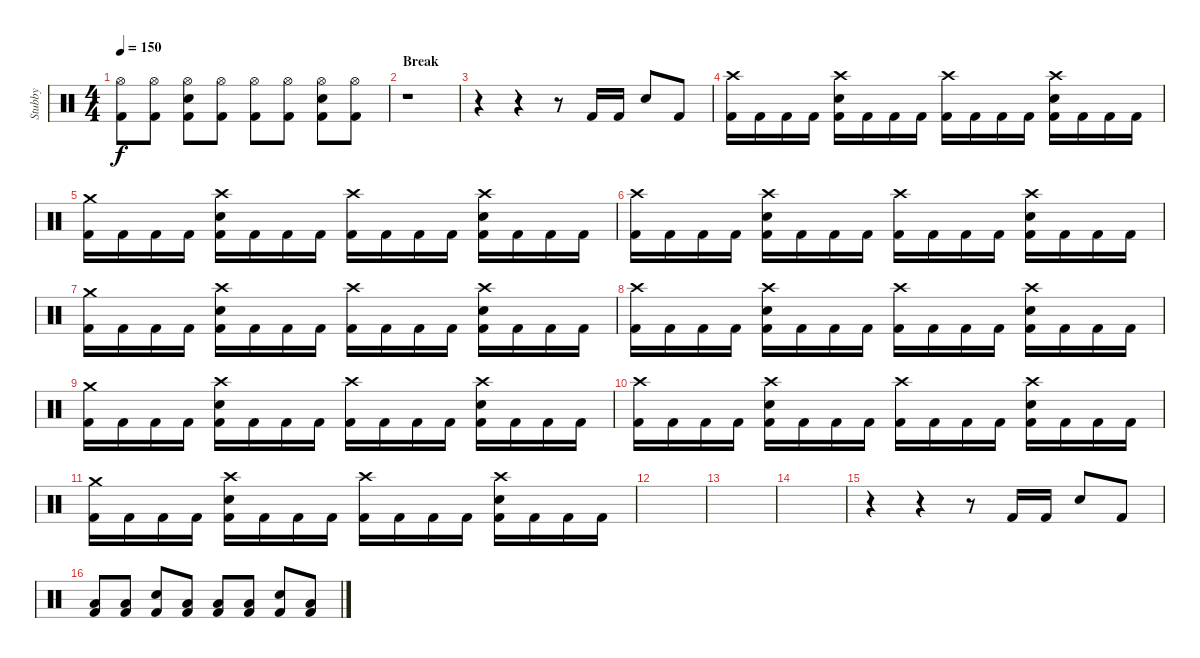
\track ("Stubby" "Stubby") {instrument percussion}
\staff {score}
\articulation defaults
\ts (4 4)
\tempo 150
\clef neutral
\ks c
("Hi-Hat (open)" "Kick (hit) 2").8{dy f} ("Hi-Hat (open)" "Kick (hit) 2").8 ("Hi-Hat (open)" "Snare (hit) 2" "Kick (hit) 2").8 ("Hi-Hat (open)" "Kick (hit) 2").8 ("Hi-Hat (open)" "Kick (hit) 2").8 ("Hi-Hat (open)" "Kick (hit) 2").8 ("Hi-Hat (open)" "Snare (hit) 2" "Kick (hit) 2").8 ("Hi-Hat (open)" "Kick (hit) 2").8 |
\section ("" "Break")
r.1 |
r.4 r.4 r.8 "Kick (hit) 2".16 "Kick (hit) 2".16 "Snare (hit) 2".8 "Kick (hit) 2".8 |
("Crash high (hit)" "Kick (hit) 2").16 "Kick (hit) 2".16 "Kick (hit) 2".16 "Kick (hit) 2".16 ("Crash high (hit)" "Snare (hit) 2" "Kick (hit) 2").16 "Kick (hit) 2".16 "Kick (hit) 2".16 "Kick (hit) 2".16 ("Crash high (hit)" "Kick (hit) 2").16 "Kick (hit) 2".16 "Kick (hit) 2".16 "Kick (hit) 2".16 ("Crash high (hit)" "Snare (hit) 2" "Kick (hit) 2").16 "Kick (hit) 2".16 "Kick (hit) 2".16 "Kick (hit) 2".16 |
("Crash medium (hit)" "Kick (hit) 2").16 "Kick (hit) 2".16 "Kick (hit) 2".16 "Kick (hit) 2".16 ("Crash high (hit)" "Snare (hit) 2" "Kick (hit) 2").16 "Kick (hit) 2".16 "Kick (hit) 2".16 "Kick (hit) 2".16 ("Crash high (hit)" "Kick (hit) 2").16 "Kick (hit) 2".16 "Kick (hit) 2".16 "Kick (hit) 2".16 ("Crash high (hit)" "Snare (hit) 2" "Kick (hit) 2").16 "Kick (hit) 2".16 "Kick (hit) 2".16 "Kick (hit) 2".16 |
("Crash high (hit)" "Kick (hit) 2").16 "Kick (hit) 2".16 "Kick (hit) 2".16 "Kick (hit) 2".16 ("Crash high (hit)" "Snare (hit) 2" "Kick (hit) 2").16 "Kick (hit) 2".16 "Kick (hit) 2".16 "Kick (hit) 2".16 ("Crash high (hit)" "Kick (hit) 2").16 "Kick (hit) 2".16 "Kick (hit) 2".16 "Kick (hit) 2".16 ("Crash high (hit)" "Snare (hit) 2" "Kick (hit) 2").16 "Kick (hit) 2".16 "Kick (hit) 2".16 "Kick (hit) 2".16 |
("Crash medium (hit)" "Kick (hit) 2").16 "Kick (hit) 2".16 "Kick (hit) 2".16 "Kick (hit) 2".16 ("Crash high (hit)" "Snare (hit) 2" "Kick (hit) 2").16 "Kick (hit) 2".16 "Kick (hit) 2".16 "Kick (hit) 2".16 ("Crash high (hit)" "Kick (hit) 2").16 "Kick (hit) 2".16 "Kick (hit) 2".16 "Kick (hit) 2".16 ("Crash high (hit)" "Snare (hit) 2" "Kick (hit) 2").16 "Kick (hit) 2".16 "Kick (hit) 2".16 "Kick (hit) 2".16 |
("Crash high (hit)" "Kick (hit) 2").16 "Kick (hit) 2".16 "Kick (hit) 2".16 "Kick (hit) 2".16 ("Crash high (hit)" "Snare (hit) 2" "Kick (hit) 2").16 "Kick (hit) 2".16 "Kick (hit) 2".16 "Kick (hit) 2".16 ("Crash high (hit)" "Kick (hit) 2").16 "Kick (hit) 2".16 "Kick (hit) 2".16 "Kick (hit) 2".16 ("Crash high (hit)" "Snare (hit) 2" "Kick (hit) 2").16 "Kick (hit) 2".16 "Kick (hit) 2".16 "Kick (hit) 2".16 |
("Crash medium (hit)" "Kick (hit) 2").16 "Kick (hit) 2".16 "Kick (hit) 2".16 "Kick (hit) 2".16 ("Crash high (hit)" "Snare (hit) 2" "Kick (hit) 2").16 "Kick (hit) 2".16 "Kick (hit) 2".16 "Kick (hit) 2".16 ("Crash high (hit)" "Kick (hit) 2").16 "Kick (hit) 2".16 "Kick (hit) 2".16 "Kick (hit) 2".16 ("Crash high (hit)" "Snare (hit) 2" "Kick (hit) 2").16 "Kick (hit) 2".16 "Kick (hit) 2".16 "Kick (hit) 2".16 |
("Crash high (hit)" "Kick (hit) 2").16 "Kick (hit) 2".16 "Kick (hit) 2".16 "Kick (hit) 2".16 ("Crash high (hit)" "Snare (hit) 2" "Kick (hit) 2").16 "Kick (hit) 2".16 "Kick (hit) 2".16 "Kick (hit) 2".16 ("Crash high (hit)" "Kick (hit) 2").16 "Kick (hit) 2".16 "Kick (hit) 2".16 "Kick (hit) 2".16 ("Crash high (hit)" "Snare (hit) 2" "Kick (hit) 2").16 "Kick (hit) 2".16 "Kick (hit) 2".16 "Kick (hit) 2".16 |
("Crash medium (hit)" "Kick (hit) 2").16 "Kick (hit) 2".16 "Kick (hit) 2".16 "Kick (hit) 2".16 ("Crash high (hit)" "Snare (hit) 2" "Kick (hit) 2").16 "Kick (hit) 2".16 "Kick (hit) 2".16 "Kick (hit) 2".16 ("Crash high (hit)" "Kick (hit) 2").16 "Kick (hit) 2".16 "Kick (hit) 2".16 "Kick (hit) 2".16 ("Crash high (hit)" "Snare (hit) 2" "Kick (hit) 2").16 "Kick (hit) 2".16 "Kick (hit) 2".16 "Kick (hit) 2".16 |
|
|
|
r.4 r.4 r.8 "Kick (hit) 2".16 "Kick (hit) 2".16 "Snare (hit) 2".8 "Kick (hit) 2".8 |
("Low Floor Tom (hit)" "Kick (hit) 2").8 ("Low Floor Tom (hit)" "Kick (hit) 2").8 ("Snare (hit) 2" "Kick (hit) 2").8 ("Low Floor Tom (hit)" "Kick (hit) 2").8 ("Low Floor Tom (hit)" "Kick (hit) 2").8 ("Low Floor Tom (hit)" "Kick (hit) 2").8 ("Snare (hit) 2" "Kick (hit) 2").8 ("Low Floor Tom (hit)" "Kick (hit) 2").8
